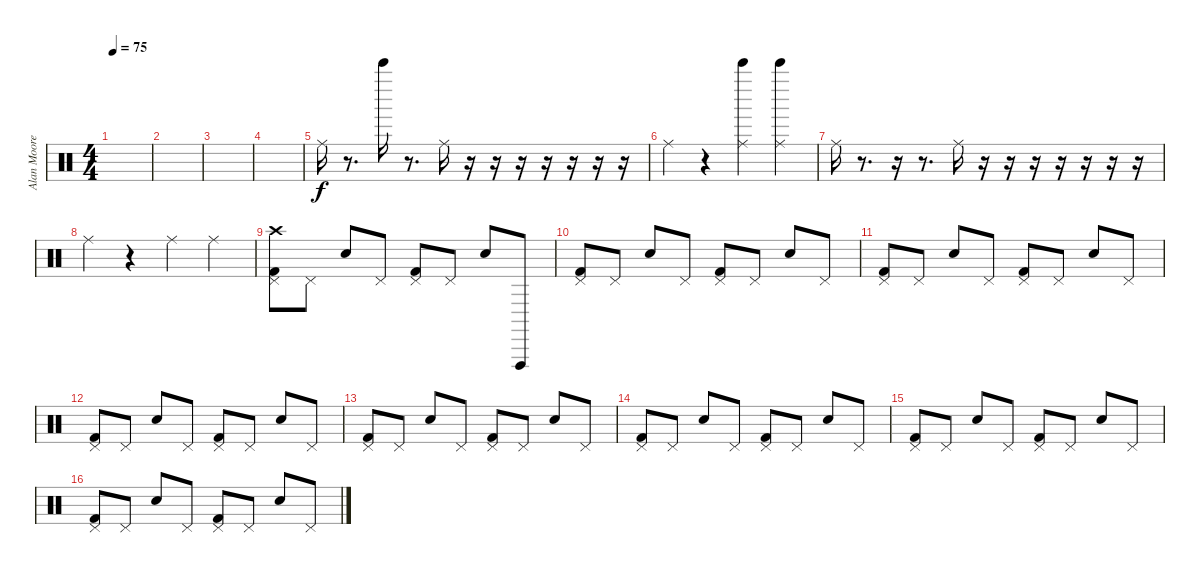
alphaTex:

\track ("Alan Moore" "Alan Moore") {instrument percussion}
\staff {score}
\articulation defaults
\ts (4 4)
\tempo 75
\clef neutral
\ks c
|
|
|
|
"Ride (middle)".16 r.8{d} "Bell Tree (hit)".16 r.8{d} "Ride (middle)".16 r.16 r.16 r.16 r.16 r.16 r.16 r.16 |
"Ride (middle)".4 r.4 ("Bell Tree (hit)" "Ride (middle)").4 ("Bell Tree (hit)" "Ride (middle)").4 |
"Ride (middle)".16 r.8{d} r.16 r.8{d} "Ride (middle)".16 r.16 r.16 r.16 r.16 r.16 r.16 r.16 |
"Ride (middle)".4 r.4 "Ride (middle)".4 "Ride (middle)".4 |
("Crash high (hit)" "Pedal Hi-Hat (hit)" "Kick (hit) 2").8 "Pedal Hi-Hat (hit)".8 "Snare (hit) 2".8 "Pedal Hi-Hat (hit)".8 ("Pedal Hi-Hat (hit)" "Kick (hit) 2").8 "Pedal Hi-Hat (hit)".8 "Snare (hit) 2".8 "Vibraslap (hit)".8 |
("Pedal Hi-Hat (hit)" "Kick (hit) 2").8 "Pedal Hi-Hat (hit)".8 "Snare (hit) 2".8 "Pedal Hi-Hat (hit)".8 ("Pedal Hi-Hat (hit)" "Kick (hit) 2").8 "Pedal Hi-Hat (hit)".8 "Snare (hit) 2".8 "Pedal Hi-Hat (hit)".8 |
("Pedal Hi-Hat (hit)" "Kick (hit) 2").8 "Pedal Hi-Hat (hit)".8 "Snare (hit) 2".8 "Pedal Hi-Hat (hit)".8 ("Pedal Hi-Hat (hit)" "Kick (hit) 2").8 "Pedal Hi-Hat (hit)".8 "Snare (hit) 2".8 "Pedal Hi-Hat (hit)".8 |
("Pedal Hi-Hat (hit)" "Kick (hit) 2").8 "Pedal Hi-Hat (hit)".8 "Snare (hit) 2".8 "Pedal Hi-Hat (hit)".8 ("Pedal Hi-Hat (hit)" "Kick (hit) 2").8 "Pedal Hi-Hat (hit)".8 "Snare (hit) 2".8 "Pedal Hi-Hat (hit)".8 |
("Pedal Hi-Hat (hit)" "Kick (hit) 2").8 "Pedal Hi-Hat (hit)".8 "Snare (hit) 2".8 "Pedal Hi-Hat (hit)".8 ("Pedal Hi-Hat (hit)" "Kick (hit) 2").8 "Pedal Hi-Hat (hit)".8 "Snare (hit) 2".8 "Pedal Hi-Hat (hit)".8 |
("Pedal Hi-Hat (hit)" "Kick (hit) 2").8 "Pedal Hi-Hat (hit)".8 "Snare (hit) 2".8 "Pedal Hi-Hat (hit)".8 ("Pedal Hi-Hat (hit)" "Kick (hit) 2").8 "Pedal Hi-Hat (hit)".8 "Snare (hit) 2".8 "Pedal Hi-Hat (hit)".8 |
("Pedal Hi-Hat (hit)" "Kick (hit) 2").8 "Pedal Hi-Hat (hit)".8 "Snare (hit) 2".8 "Pedal Hi-Hat (hit)".8 ("Pedal Hi-Hat (hit)" "Kick (hit) 2").8 "Pedal Hi-Hat (hit)".8 "Snare (hit) 2".8 "Pedal Hi-Hat (hit)".8 |
("Pedal Hi-Hat (hit)" "Kick (hit) 2").8 "Pedal Hi-Hat (hit)".8 "Snare (hit) 2".8 "Pedal Hi-Hat (hit)".8 ("Pedal Hi-Hat (hit)" "Kick (hit) 2").8 "Pedal Hi-Hat (hit)".8 "Snare (hit) 2".8 "Pedal Hi-Hat (hit)".8
